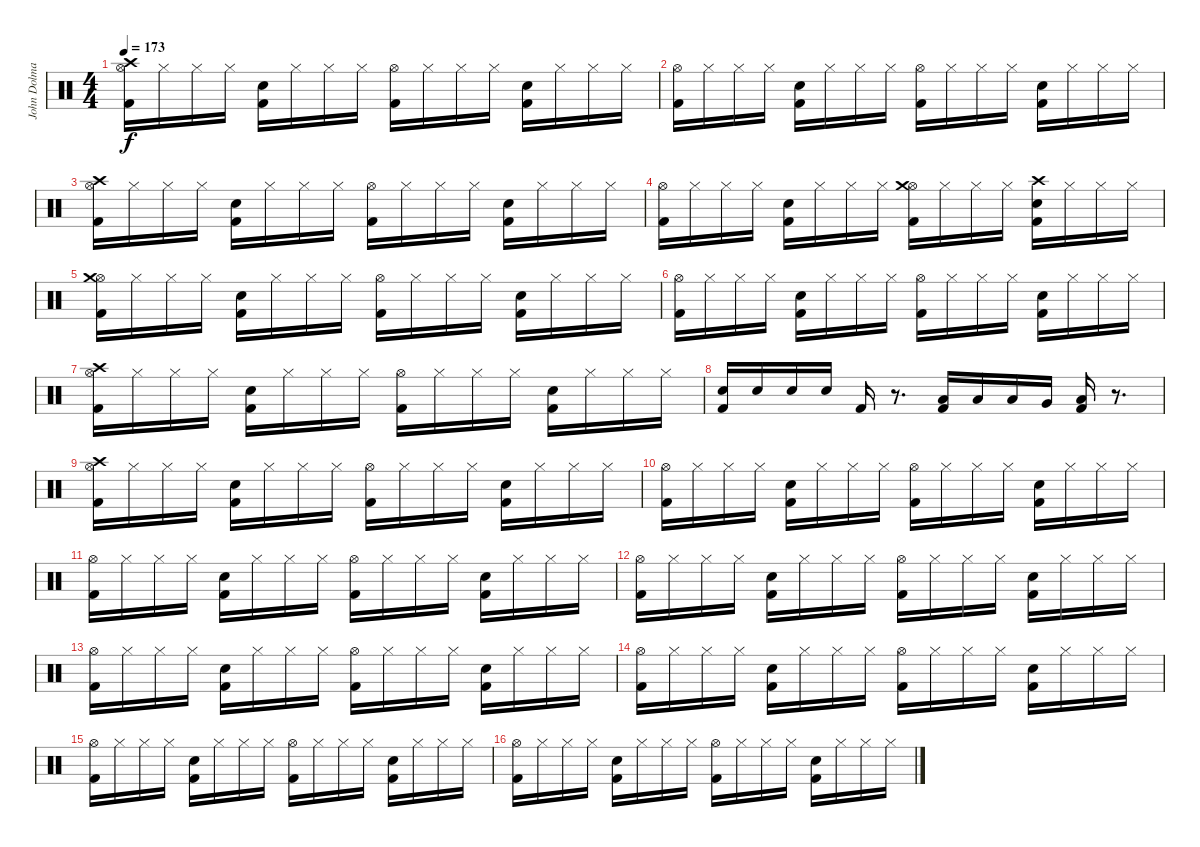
\track ("John Dolmayan" "John Dolma") {instrument percussion}
\staff {score}
\articulation defaults
\ts (4 4)
\tempo 173
\clef neutral
\ks c
("Kick (hit) 2" "Hi-Hat (open)" "Crash high (hit)").16{dy f} "Hi-Hat (closed)".16 "Hi-Hat (closed)".16 "Hi-Hat (closed)".16 ("Kick (hit) 2" "Electric Snare (hit)").16 "Hi-Hat (closed)".16 "Hi-Hat (closed)".16 "Hi-Hat (closed)".16 ("Kick (hit) 2" "Hi-Hat (open)").16 "Hi-Hat (closed)".16 "Hi-Hat (closed)".16 "Hi-Hat (closed)".16 ("Kick (hit) 2" "Electric Snare (hit)").16 "Hi-Hat (closed)".16 "Hi-Hat (closed)".16 "Hi-Hat (closed)".16 |
("Kick (hit) 2" "Hi-Hat (open)").16 "Hi-Hat (closed)".16 "Hi-Hat (closed)".16 "Hi-Hat (closed)".16 ("Kick (hit) 2" "Electric Snare (hit)").16 "Hi-Hat (closed)".16 "Hi-Hat (closed)".16 "Hi-Hat (closed)".16 ("Kick (hit) 2" "Hi-Hat (open)").16 "Hi-Hat (closed)".16 "Hi-Hat (closed)".16 "Hi-Hat (closed)".16 ("Kick (hit) 2" "Electric Snare (hit)").16 "Hi-Hat (closed)".16 "Hi-Hat (closed)".16 "Hi-Hat (closed)".16 |
("Kick (hit) 2" "Hi-Hat (open)" "Crash high (hit)").16 "Hi-Hat (closed)".16 "Hi-Hat (closed)".16 "Hi-Hat (closed)".16 ("Kick (hit) 2" "Electric Snare (hit)").16 "Hi-Hat (closed)".16 "Hi-Hat (closed)".16 "Hi-Hat (closed)".16 ("Kick (hit) 2" "Hi-Hat (open)").16 "Hi-Hat (closed)".16 "Hi-Hat (closed)".16 "Hi-Hat (closed)".16 ("Kick (hit) 2" "Electric Snare (hit)").16 "Hi-Hat (closed)".16 "Hi-Hat (closed)".16 "Hi-Hat (closed)".16 |
("Kick (hit) 2" "Hi-Hat (open)").16 "Hi-Hat (closed)".16 "Hi-Hat (closed)".16 "Hi-Hat (closed)".16 ("Kick (hit) 2" "Electric Snare (hit)").16 "Hi-Hat (closed)".16 "Hi-Hat (closed)".16 "Hi-Hat (closed)".16 ("Kick (hit) 2" "Hi-Hat (open)" "Crash medium (hit)").16 "Hi-Hat (closed)".16 "Hi-Hat (closed)".16 "Hi-Hat (closed)".16 ("Kick (hit) 2" "Electric Snare (hit)" "Crash high (hit)").16 "Hi-Hat (closed)".16 "Hi-Hat (closed)".16 "Hi-Hat (closed)".16 |
("Kick (hit) 2" "Hi-Hat (open)" "Crash medium (hit)").16 "Hi-Hat (closed)".16 "Hi-Hat (closed)".16 "Hi-Hat (closed)".16 ("Kick (hit) 2" "Electric Snare (hit)").16 "Hi-Hat (closed)".16 "Hi-Hat (closed)".16 "Hi-Hat (closed)".16 ("Kick (hit) 2" "Hi-Hat (open)").16 "Hi-Hat (closed)".16 "Hi-Hat (closed)".16 "Hi-Hat (closed)".16 ("Kick (hit) 2" "Electric Snare (hit)").16 "Hi-Hat (closed)".16 "Hi-Hat (closed)".16 "Hi-Hat (closed)".16 |
("Kick (hit) 2" "Hi-Hat (open)").16 "Hi-Hat (closed)".16 "Hi-Hat (closed)".16 "Hi-Hat (closed)".16 ("Kick (hit) 2" "Electric Snare (hit)").16 "Hi-Hat (closed)".16 "Hi-Hat (closed)".16 "Hi-Hat (closed)".16 ("Kick (hit) 2" "Hi-Hat (open)").16 "Hi-Hat (closed)".16 "Hi-Hat (closed)".16 "Hi-Hat (closed)".16 ("Kick (hit) 2" "Electric Snare (hit)").16 "Hi-Hat (closed)".16 "Hi-Hat (closed)".16 "Hi-Hat (closed)".16 |
("Kick (hit) 2" "Hi-Hat (open)" "Crash high (hit)").16 "Hi-Hat (closed)".16 "Hi-Hat (closed)".16 "Hi-Hat (closed)".16 ("Kick (hit) 2" "Electric Snare (hit)").16 "Hi-Hat (closed)".16 "Hi-Hat (closed)".16 "Hi-Hat (closed)".16 ("Kick (hit) 2" "Hi-Hat (open)").16 "Hi-Hat (closed)".16 "Hi-Hat (closed)".16 "Hi-Hat (closed)".16 ("Kick (hit) 2" "Electric Snare (hit)").16 "Hi-Hat (closed)".16 "Hi-Hat (closed)".16 "Hi-Hat (closed)".16 |
("Kick (hit) 2" "Electric Snare (hit)").16 "Electric Snare (hit)".16 "Electric Snare (hit)".16 "Electric Snare (hit)".16 "Kick (hit) 2".16 r.8{d} ("Kick (hit) 2" "Low Tom (hit)").16 "Low Tom (hit)".16 "Low Tom (hit)".16 "Very Low Tom (hit)".16 ("Kick (hit) 2" "Low Floor Tom (hit)").16 r.8{d} |
("Kick (hit) 2" "Hi-Hat (open)" "Crash high (hit)").16 "Hi-Hat (closed)".16 "Hi-Hat (closed)".16 "Hi-Hat (closed)".16 ("Kick (hit) 2" "Electric Snare (hit)").16 "Hi-Hat (closed)".16 "Hi-Hat (closed)".16 "Hi-Hat (closed)".16 ("Kick (hit) 2" "Hi-Hat (open)").16 "Hi-Hat (closed)".16 "Hi-Hat (closed)".16 "Hi-Hat (closed)".16 ("Kick (hit) 2" "Electric Snare (hit)").16 "Hi-Hat (closed)".16 "Hi-Hat (closed)".16 "Hi-Hat (closed)".16 |
("Kick (hit) 2" "Hi-Hat (open)").16 "Hi-Hat (closed)".16 "Hi-Hat (closed)".16 "Hi-Hat (closed)".16 ("Kick (hit) 2" "Electric Snare (hit)").16 "Hi-Hat (closed)".16 "Hi-Hat (closed)".16 "Hi-Hat (closed)".16 ("Kick (hit) 2" "Hi-Hat (open)").16 "Hi-Hat (closed)".16 "Hi-Hat (closed)".16 "Hi-Hat (closed)".16 ("Kick (hit) 2" "Electric Snare (hit)").16 "Hi-Hat (closed)".16 "Hi-Hat (closed)".16 "Hi-Hat (closed)".16 |
("Kick (hit) 2" "Hi-Hat (open)").16 "Hi-Hat (closed)".16 "Hi-Hat (closed)".16 "Hi-Hat (closed)".16 ("Kick (hit) 2" "Electric Snare (hit)").16 "Hi-Hat (closed)".16 "Hi-Hat (closed)".16 "Hi-Hat (closed)".16 ("Kick (hit) 2" "Hi-Hat (open)").16 "Hi-Hat (closed)".16 "Hi-Hat (closed)".16 "Hi-Hat (closed)".16 ("Kick (hit) 2" "Electric Snare (hit)").16 "Hi-Hat (closed)".16 "Hi-Hat (closed)".16 "Hi-Hat (closed)".16 |
("Kick (hit) 2" "Hi-Hat (open)").16 "Hi-Hat (closed)".16 "Hi-Hat (closed)".16 "Hi-Hat (closed)".16 ("Kick (hit) 2" "Electric Snare (hit)").16 "Hi-Hat (closed)".16 "Hi-Hat (closed)".16 "Hi-Hat (closed)".16 ("Kick (hit) 2" "Hi-Hat (open)").16 "Hi-Hat (closed)".16 "Hi-Hat (closed)".16 "Hi-Hat (closed)".16 ("Kick (hit) 2" "Electric Snare (hit)").16 "Hi-Hat (closed)".16 "Hi-Hat (closed)".16 "Hi-Hat (closed)".16 |
("Kick (hit) 2" "Hi-Hat (open)").16 "Hi-Hat (closed)".16 "Hi-Hat (closed)".16 "Hi-Hat (closed)".16 ("Kick (hit) 2" "Electric Snare (hit)").16 "Hi-Hat (closed)".16 "Hi-Hat (closed)".16 "Hi-Hat (closed)".16 ("Kick (hit) 2" "Hi-Hat (open)").16 "Hi-Hat (closed)".16 "Hi-Hat (closed)".16 "Hi-Hat (closed)".16 ("Kick (hit) 2" "Electric Snare (hit)").16 "Hi-Hat (closed)".16 "Hi-Hat (closed)".16 "Hi-Hat (closed)".16 |
("Kick (hit) 2" "Hi-Hat (open)").16 "Hi-Hat (closed)".16 "Hi-Hat (closed)".16 "Hi-Hat (closed)".16 ("Kick (hit) 2" "Electric Snare (hit)").16 "Hi-Hat (closed)".16 "Hi-Hat (closed)".16 "Hi-Hat (closed)".16 ("Kick (hit) 2" "Hi-Hat (open)").16 "Hi-Hat (closed)".16 "Hi-Hat (closed)".16 "Hi-Hat (closed)".16 ("Kick (hit) 2" "Electric Snare (hit)").16 "Hi-Hat (closed)".16 "Hi-Hat (closed)".16 "Hi-Hat (closed)".16 |
("Kick (hit) 2" "Hi-Hat (open)").16 "Hi-Hat (closed)".16 "Hi-Hat (closed)".16 "Hi-Hat (closed)".16 ("Kick (hit) 2" "Electric Snare (hit)").16 "Hi-Hat (closed)".16 "Hi-Hat (closed)".16 "Hi-Hat (closed)".16 ("Kick (hit) 2" "Hi-Hat (open)").16 "Hi-Hat (closed)".16 "Hi-Hat (closed)".16 "Hi-Hat (closed)".16 ("Kick (hit) 2" "Electric Snare (hit)").16 "Hi-Hat (closed)".16 "Hi-Hat (closed)".16 "Hi-Hat (closed)".16 |
("Kick (hit) 2" "Hi-Hat (open)").16 "Hi-Hat (closed)".16 "Hi-Hat (closed)".16 "Hi-Hat (closed)".16 ("Kick (hit) 2" "Electric Snare (hit)").16 "Hi-Hat (closed)".16 "Hi-Hat (closed)".16 "Hi-Hat (closed)".16 ("Kick (hit) 2" "Hi-Hat (open)").16 "Hi-Hat (closed)".16 "Hi-Hat (closed)".16 "Hi-Hat (closed)".16 ("Kick (hit) 2" "Electric Snare (hit)").16 "Hi-Hat (closed)".16 "Hi-Hat (closed)".16 "Hi-Hat (closed)".16
